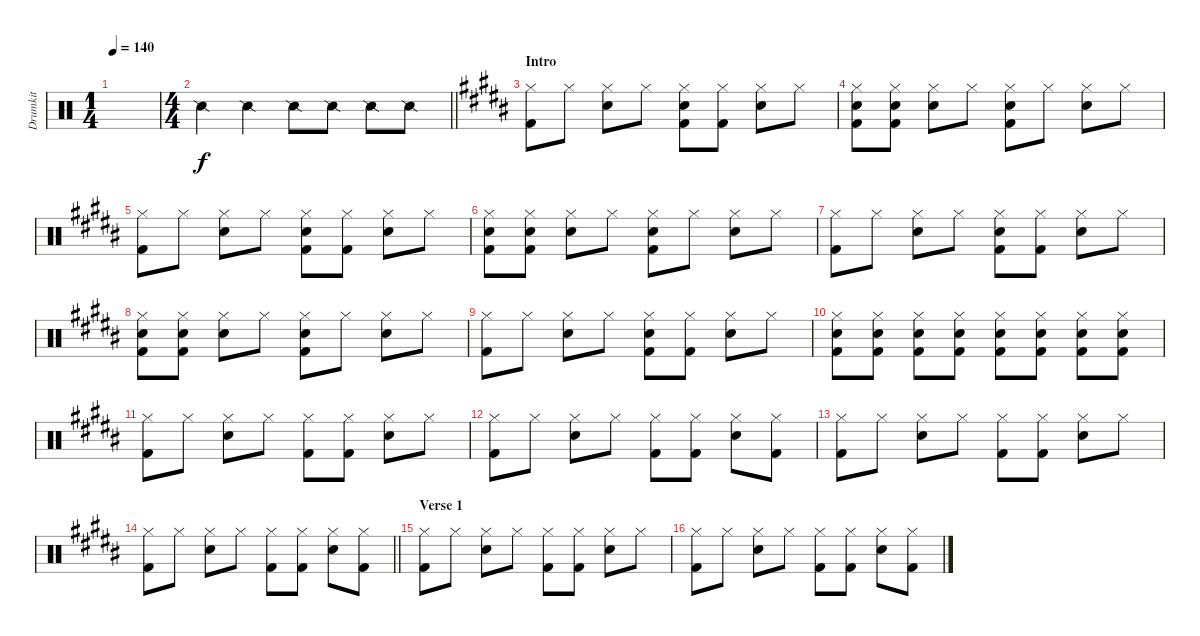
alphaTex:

\track ("Drumkit" "Drumkit") {instrument percussion}
\staff {score}
\articulation defaults
\ts (1 4)
\tempo 140
\clef neutral
\ks c
|
\ts (4 4)
\barLineRight lightlight "Snare (side stick) 2".4 "Snare (side stick) 2".4 "Snare (side stick) 2".8 "Snare (side stick) 2".8 "Snare (side stick) 2".8 "Snare (side stick) 2".8
|
\section ("" "Intro")
\ks b
("Hi-Hat (closed)" "Kick (hit) 2").8 "Hi-Hat (closed)".8 ("Hi-Hat (closed)" "Snare (hit) 2").8 "Hi-Hat (closed)".8 ("Hi-Hat (closed)" "Snare (hit) 2" "Kick (hit) 2").8 ("Hi-Hat (closed)" "Kick (hit) 2").8 ("Hi-Hat (closed)" "Snare (hit) 2").8 "Hi-Hat (closed)".8 |
("Hi-Hat (closed)" "Snare (hit) 2" "Kick (hit) 2").8 ("Hi-Hat (closed)" "Snare (hit) 2" "Kick (hit) 2").8 ("Hi-Hat (closed)" "Snare (hit) 2").8 "Hi-Hat (closed)".8 ("Hi-Hat (closed)" "Snare (hit) 2" "Kick (hit) 2").8 "Hi-Hat (closed)".8 ("Hi-Hat (closed)" "Snare (hit) 2").8 "Hi-Hat (closed)".8 |
("Hi-Hat (closed)" "Kick (hit) 2").8 "Hi-Hat (closed)".8 ("Hi-Hat (closed)" "Snare (hit) 2").8 "Hi-Hat (closed)".8 ("Hi-Hat (closed)" "Snare (hit) 2" "Kick (hit) 2").8 ("Hi-Hat (closed)" "Kick (hit) 2").8 ("Hi-Hat (closed)" "Snare (hit) 2").8 "Hi-Hat (closed)".8 |
("Hi-Hat (closed)" "Snare (hit) 2" "Kick (hit) 2").8 ("Hi-Hat (closed)" "Snare (hit) 2" "Kick (hit) 2").8 ("Hi-Hat (closed)" "Snare (hit) 2").8 "Hi-Hat (closed)".8 ("Hi-Hat (closed)" "Snare (hit) 2" "Kick (hit) 2").8 "Hi-Hat (closed)".8 ("Hi-Hat (closed)" "Snare (hit) 2").8 "Hi-Hat (closed)".8 |
("Hi-Hat (closed)" "Kick (hit) 2").8 "Hi-Hat (closed)".8 ("Hi-Hat (closed)" "Snare (hit) 2").8 "Hi-Hat (closed)".8 ("Hi-Hat (closed)" "Snare (hit) 2" "Kick (hit) 2").8 ("Hi-Hat (closed)" "Kick (hit) 2").8 ("Hi-Hat (closed)" "Snare (hit) 2").8 "Hi-Hat (closed)".8 |
("Hi-Hat (closed)" "Snare (hit) 2" "Kick (hit) 2").8 ("Hi-Hat (closed)" "Snare (hit) 2" "Kick (hit) 2").8 ("Hi-Hat (closed)" "Snare (hit) 2").8 "Hi-Hat (closed)".8 ("Hi-Hat (closed)" "Snare (hit) 2" "Kick (hit) 2").8 "Hi-Hat (closed)".8 ("Hi-Hat (closed)" "Snare (hit) 2").8 "Hi-Hat (closed)".8 |
("Hi-Hat (closed)" "Kick (hit) 2").8 "Hi-Hat (closed)".8 ("Hi-Hat (closed)" "Snare (hit) 2").8 "Hi-Hat (closed)".8 ("Hi-Hat (closed)" "Snare (hit) 2" "Kick (hit) 2").8 ("Hi-Hat (closed)" "Kick (hit) 2").8 ("Hi-Hat (closed)" "Snare (hit) 2").8 "Hi-Hat (closed)".8 |
("Hi-Hat (closed)" "Snare (hit) 2" "Kick (hit) 2").8 ("Hi-Hat (closed)" "Snare (hit) 2" "Kick (hit) 2").8 ("Hi-Hat (closed)" "Snare (hit) 2" "Kick (hit) 2").8 ("Hi-Hat (closed)" "Snare (hit) 2" "Kick (hit) 2").8 ("Hi-Hat (closed)" "Snare (hit) 2" "Kick (hit) 2").8 ("Hi-Hat (closed)" "Snare (hit) 2" "Kick (hit) 2").8 ("Hi-Hat (closed)" "Snare (hit) 2" "Kick (hit) 2").8 ("Hi-Hat (closed)" "Snare (hit) 2" "Kick (hit) 2").8 |
("Hi-Hat (closed)" "Kick (hit) 2").8 "Hi-Hat (closed)".8 ("Hi-Hat (closed)" "Snare (hit) 2").8 "Hi-Hat (closed)".8 ("Hi-Hat (closed)" "Kick (hit) 2").8 ("Hi-Hat (closed)" "Kick (hit) 2").8 ("Hi-Hat (closed)" "Snare (hit) 2").8 "Hi-Hat (closed)".8 |
("Hi-Hat (closed)" "Kick (hit) 2").8 "Hi-Hat (closed)".8 ("Hi-Hat (closed)" "Snare (hit) 2").8 "Hi-Hat (closed)".8 ("Hi-Hat (closed)" "Kick (hit) 2").8 ("Hi-Hat (closed)" "Kick (hit) 2").8 ("Hi-Hat (closed)" "Snare (hit) 2").8 ("Hi-Hat (closed)" "Kick (hit) 2").8 |
("Hi-Hat (closed)" "Kick (hit) 2").8 "Hi-Hat (closed)".8 ("Hi-Hat (closed)" "Snare (hit) 2").8 "Hi-Hat (closed)".8 ("Hi-Hat (closed)" "Kick (hit) 2").8 ("Hi-Hat (closed)" "Kick (hit) 2").8 ("Hi-Hat (closed)" "Snare (hit) 2").8 "Hi-Hat (closed)".8 |
\barLineRight lightlight
("Hi-Hat (closed)" "Kick (hit) 2").8 "Hi-Hat (closed)".8 ("Hi-Hat (closed)" "Snare (hit) 2").8 "Hi-Hat (closed)".8 ("Hi-Hat (closed)" "Kick (hit) 2").8 ("Hi-Hat (closed)" "Kick (hit) 2").8 ("Hi-Hat (closed)" "Snare (hit) 2").8 ("Hi-Hat (closed)" "Kick (hit) 2").8 |
\section ("" "Verse 1")
("Hi-Hat (closed)" "Kick (hit) 2").8 "Hi-Hat (closed)".8 ("Hi-Hat (closed)" "Snare (hit) 2").8 "Hi-Hat (closed)".8 ("Hi-Hat (closed)" "Kick (hit) 2").8 ("Hi-Hat (closed)" "Kick (hit) 2").8 ("Hi-Hat (closed)" "Snare (hit) 2").8 "Hi-Hat (closed)".8 |
("Hi-Hat (closed)" "Kick (hit) 2").8 "Hi-Hat (closed)".8 ("Hi-Hat (closed)" "Snare (hit) 2").8 "Hi-Hat (closed)".8 ("Hi-Hat (closed)" "Kick (hit) 2").8 ("Hi-Hat (closed)" "Kick (hit) 2").8 ("Hi-Hat (closed)" "Snare (hit) 2").8 ("Hi-Hat (closed)" "Kick (hit) 2").8
